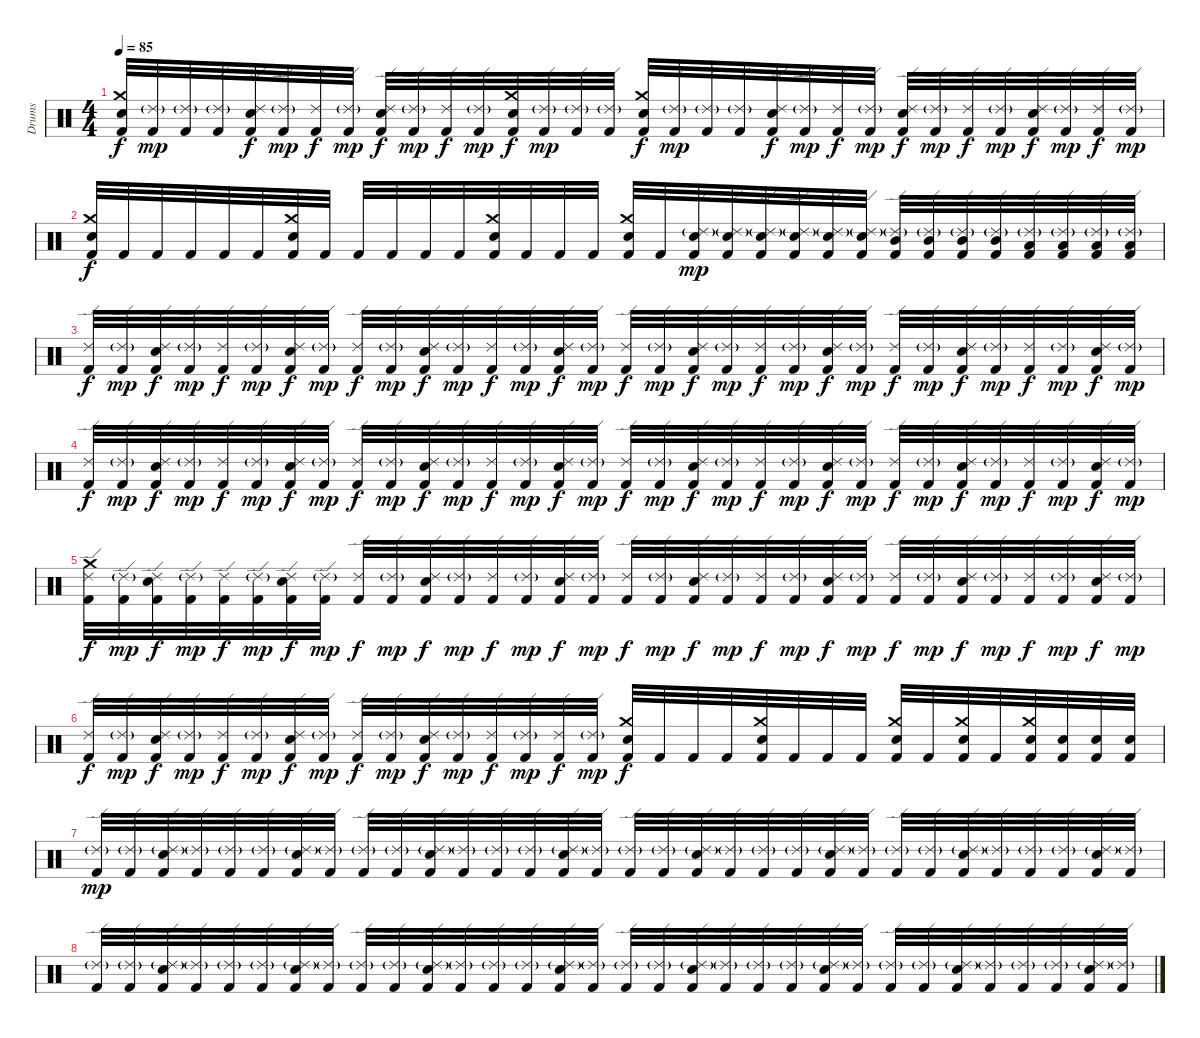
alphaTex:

\track ("Drums" "Drums") {instrument percussion}
\staff {score}
\articulation defaults
\ts (4 4)
\tempo 85
\clef neutral
\ks c
("Snare (hit) 2" "Crash medium (hit)" "Kick (hit) 2").32{dy f} ("Ride (edge) 2"{g} "Kick (hit) 2").32{dy mp} ("Ride (edge) 2"{g} "Kick (hit) 2").32 ("Ride (edge) 2"{g} "Kick (hit) 2").32 ("Snare (hit) 2" "Ride (edge) 2" "Kick (hit) 2").32{dy f} ("Ride (edge) 2"{g} "Kick (hit) 2").32{dy mp} ("Ride (edge) 2" "Kick (hit) 2").32{dy f} ("Ride (edge) 2"{g} "Kick (hit) 2").32{dy mp} ("Snare (hit) 2" "Ride (edge) 2" "Kick (hit) 2").32{dy f} ("Ride (edge) 2"{g} "Kick (hit) 2").32{dy mp} ("Ride (edge) 2" "Kick (hit) 2").32{dy f} ("Ride (edge) 2"{g} "Kick (hit) 2").32{dy mp} ("Snare (hit) 2" "Crash medium (hit)" "Kick (hit) 2").32{dy f} ("Ride (edge) 2"{g} "Kick (hit) 2").32{dy mp} ("Ride (edge) 2"{g} "Kick (hit) 2").32 ("Ride (edge) 2"{g} "Kick (hit) 2").32 ("Snare (hit) 2" "Crash medium (hit)" "Kick (hit) 2").32{dy f} ("Ride (edge) 2"{g} "Kick (hit) 2").32{dy mp} ("Ride (edge) 2"{g} "Kick (hit) 2").32 ("Ride (edge) 2"{g} "Kick (hit) 2").32 ("Snare (hit) 2" "Ride (edge) 2" "Kick (hit) 2").32{dy f} ("Ride (edge) 2"{g} "Kick (hit) 2").32{dy mp} ("Ride (edge) 2" "Kick (hit) 2").32{dy f} ("Ride (edge) 2"{g} "Kick (hit) 2").32{dy mp} ("Snare (hit) 2" "Ride (edge) 2" "Kick (hit) 2").32{dy f} ("Ride (edge) 2"{g} "Kick (hit) 2").32{dy mp} ("Ride (edge) 2" "Kick (hit) 2").32{dy f} ("Ride (edge) 2"{g} "Kick (hit) 2").32{dy mp} ("Snare (hit) 2" "Ride (edge) 2" "Kick (hit) 2").32{dy f} ("Ride (edge) 2"{g} "Kick (hit) 2").32{dy mp} ("Ride (edge) 2" "Kick (hit) 2").32{dy f} ("Ride (edge) 2"{g} "Kick (hit) 2").32{dy mp} |
("Snare (hit) 2" "Crash medium (hit)" "Kick (hit) 2").32{dy f} "Kick (hit) 2".32 "Kick (hit) 2".32 "Kick (hit) 2".32 "Kick (hit) 2".32 "Kick (hit) 2".32 ("Snare (hit) 2" "Crash medium (hit)" "Kick (hit) 2").32 "Kick (hit) 2".32 "Kick (hit) 2".32 "Kick (hit) 2".32 "Kick (hit) 2".32 "Kick (hit) 2".32 ("Snare (hit) 2" "Crash medium (hit)" "Kick (hit) 2").32 "Kick (hit) 2".32 "Kick (hit) 2".32 "Kick (hit) 2".32 ("Snare (hit) 2" "Crash medium (hit)" "Kick (hit) 2").32 "Kick (hit) 2".32 ("Snare (hit) 2" "Ride (edge) 2"{g} "Kick (hit) 2").32{dy mp} ("Snare (hit) 2" "Ride (edge) 2"{g} "Kick (hit) 2").32 ("Snare (hit) 2" "Ride (edge) 2"{g} "Kick (hit) 2").32 ("Snare (hit) 2" "Ride (edge) 2"{g} "Kick (hit) 2").32 ("Snare (hit) 2" "Ride (edge) 2"{g} "Kick (hit) 2").32 ("Snare (hit) 2" "Ride (edge) 2"{g} "Kick (hit) 2").32 ("Mid Tom (hit)" "Ride (edge) 2"{g} "Kick (hit) 2").32 ("Mid Tom (hit)" "Ride (edge) 2"{g} "Kick (hit) 2").32 ("Mid Tom (hit)" "Ride (edge) 2"{g} "Kick (hit) 2").32 ("Mid Tom (hit)" "Ride (edge) 2"{g} "Kick (hit) 2").32 ("Low Tom (hit)" "Ride (edge) 2"{g} "Kick (hit) 2").32 ("Low Tom (hit)" "Ride (edge) 2"{g} "Kick (hit) 2").32 ("Low Tom (hit)" "Ride (edge) 2"{g} "Kick (hit) 2").32 ("Low Tom (hit)" "Ride (edge) 2"{g} "Kick (hit) 2").32 |
("Ride (edge) 2" "Kick (hit) 2").32{dy f} ("Ride (edge) 2"{g} "Kick (hit) 2").32{dy mp} ("Snare (hit) 2" "Ride (edge) 2" "Kick (hit) 2").32{dy f} ("Ride (edge) 2"{g} "Kick (hit) 2").32{dy mp} ("Ride (edge) 2" "Kick (hit) 2").32{dy f} ("Ride (edge) 2"{g} "Kick (hit) 2").32{dy mp} ("Snare (hit) 2" "Ride (edge) 2" "Kick (hit) 2").32{dy f} ("Ride (edge) 2"{g} "Kick (hit) 2").32{dy mp} ("Ride (edge) 2" "Kick (hit) 2").32{dy f} ("Ride (edge) 2"{g} "Kick (hit) 2").32{dy mp} ("Snare (hit) 2" "Ride (edge) 2" "Kick (hit) 2").32{dy f} ("Ride (edge) 2"{g} "Kick (hit) 2").32{dy mp} ("Ride (edge) 2" "Kick (hit) 2").32{dy f} ("Ride (edge) 2"{g} "Kick (hit) 2").32{dy mp} ("Snare (hit) 2" "Ride (edge) 2" "Kick (hit) 2").32{dy f} ("Ride (edge) 2"{g} "Kick (hit) 2").32{dy mp} ("Ride (edge) 2" "Kick (hit) 2").32{dy f} ("Ride (edge) 2"{g} "Kick (hit) 2").32{dy mp} ("Snare (hit) 2" "Ride (edge) 2" "Kick (hit) 2").32{dy f} ("Ride (edge) 2"{g} "Kick (hit) 2").32{dy mp} ("Ride (edge) 2" "Kick (hit) 2").32{dy f} ("Ride (edge) 2"{g} "Kick (hit) 2").32{dy mp} ("Snare (hit) 2" "Ride (edge) 2" "Kick (hit) 2").32{dy f} ("Ride (edge) 2"{g} "Kick (hit) 2").32{dy mp} ("Ride (edge) 2" "Kick (hit) 2").32{dy f} ("Ride (edge) 2"{g} "Kick (hit) 2").32{dy mp} ("Snare (hit) 2" "Ride (edge) 2" "Kick (hit) 2").32{dy f} ("Ride (edge) 2"{g} "Kick (hit) 2").32{dy mp} ("Ride (edge) 2" "Kick (hit) 2").32{dy f} ("Ride (edge) 2"{g} "Kick (hit) 2").32{dy mp} ("Snare (hit) 2" "Ride (edge) 2" "Kick (hit) 2").32{dy f} ("Ride (edge) 2"{g} "Kick (hit) 2").32{dy mp} |
("Ride (edge) 2" "Kick (hit) 2").32{dy f} ("Ride (edge) 2"{g} "Kick (hit) 2").32{dy mp} ("Snare (hit) 2" "Ride (edge) 2" "Kick (hit) 2").32{dy f} ("Ride (edge) 2"{g} "Kick (hit) 2").32{dy mp} ("Ride (edge) 2" "Kick (hit) 2").32{dy f} ("Ride (edge) 2"{g} "Kick (hit) 2").32{dy mp} ("Snare (hit) 2" "Ride (edge) 2" "Kick (hit) 2").32{dy f} ("Ride (edge) 2"{g} "Kick (hit) 2").32{dy mp} ("Ride (edge) 2" "Kick (hit) 2").32{dy f} ("Ride (edge) 2"{g} "Kick (hit) 2").32{dy mp} ("Snare (hit) 2" "Ride (edge) 2" "Kick (hit) 2").32{dy f} ("Ride (edge) 2"{g} "Kick (hit) 2").32{dy mp} ("Ride (edge) 2" "Kick (hit) 2").32{dy f} ("Ride (edge) 2"{g} "Kick (hit) 2").32{dy mp} ("Snare (hit) 2" "Ride (edge) 2" "Kick (hit) 2").32{dy f} ("Ride (edge) 2"{g} "Kick (hit) 2").32{dy mp} ("Ride (edge) 2" "Kick (hit) 2").32{dy f} ("Ride (edge) 2"{g} "Kick (hit) 2").32{dy mp} ("Snare (hit) 2" "Ride (edge) 2" "Kick (hit) 2").32{dy f} ("Ride (edge) 2"{g} "Kick (hit) 2").32{dy mp} ("Ride (edge) 2" "Kick (hit) 2").32{dy f} ("Ride (edge) 2"{g} "Kick (hit) 2").32{dy mp} ("Snare (hit) 2" "Ride (edge) 2" "Kick (hit) 2").32{dy f} ("Ride (edge) 2"{g} "Kick (hit) 2").32{dy mp} ("Ride (edge) 2" "Kick (hit) 2").32{dy f} ("Ride (edge) 2"{g} "Kick (hit) 2").32{dy mp} ("Snare (hit) 2" "Ride (edge) 2" "Kick (hit) 2").32{dy f} ("Ride (edge) 2"{g} "Kick (hit) 2").32{dy mp} ("Ride (edge) 2" "Kick (hit) 2").32{dy f} ("Ride (edge) 2"{g} "Kick (hit) 2").32{dy mp} ("Snare (hit) 2" "Ride (edge) 2" "Kick (hit) 2").32{dy f} ("Ride (edge) 2"{g} "Kick (hit) 2").32{dy mp} |
("Crash medium (hit)" "Ride (edge) 2" "Kick (hit) 2").32{dy f} ("Ride (edge) 2"{g} "Kick (hit) 2").32{dy mp} ("Snare (hit) 2" "Ride (edge) 2" "Kick (hit) 2").32{dy f} ("Ride (edge) 2"{g} "Kick (hit) 2").32{dy mp} ("Ride (edge) 2" "Kick (hit) 2").32{dy f} ("Ride (edge) 2"{g} "Kick (hit) 2").32{dy mp} ("Snare (hit) 2" "Ride (edge) 2" "Kick (hit) 2").32{dy f} ("Ride (edge) 2"{g} "Kick (hit) 2").32{dy mp} ("Ride (edge) 2" "Kick (hit) 2").32{dy f} ("Ride (edge) 2"{g} "Kick (hit) 2").32{dy mp} ("Snare (hit) 2" "Ride (edge) 2" "Kick (hit) 2").32{dy f} ("Ride (edge) 2"{g} "Kick (hit) 2").32{dy mp} ("Ride (edge) 2" "Kick (hit) 2").32{dy f} ("Ride (edge) 2"{g} "Kick (hit) 2").32{dy mp} ("Snare (hit) 2" "Ride (edge) 2" "Kick (hit) 2").32{dy f} ("Ride (edge) 2"{g} "Kick (hit) 2").32{dy mp} ("Ride (edge) 2" "Kick (hit) 2").32{dy f} ("Ride (edge) 2"{g} "Kick (hit) 2").32{dy mp} ("Snare (hit) 2" "Ride (edge) 2" "Kick (hit) 2").32{dy f} ("Ride (edge) 2"{g} "Kick (hit) 2").32{dy mp} ("Ride (edge) 2" "Kick (hit) 2").32{dy f} ("Ride (edge) 2"{g} "Kick (hit) 2").32{dy mp} ("Snare (hit) 2" "Ride (edge) 2" "Kick (hit) 2").32{dy f} ("Ride (edge) 2"{g} "Kick (hit) 2").32{dy mp} ("Ride (edge) 2" "Kick (hit) 2").32{dy f} ("Ride (edge) 2"{g} "Kick (hit) 2").32{dy mp} ("Snare (hit) 2" "Ride (edge) 2" "Kick (hit) 2").32{dy f} ("Ride (edge) 2"{g} "Kick (hit) 2").32{dy mp} ("Ride (edge) 2" "Kick (hit) 2").32{dy f} ("Ride (edge) 2"{g} "Kick (hit) 2").32{dy mp} ("Snare (hit) 2" "Ride (edge) 2" "Kick (hit) 2").32{dy f} ("Ride (edge) 2"{g} "Kick (hit) 2").32{dy mp} |
("Ride (edge) 2" "Kick (hit) 2").32{dy f} ("Ride (edge) 2"{g} "Kick (hit) 2").32{dy mp} ("Snare (hit) 2" "Ride (edge) 2" "Kick (hit) 2").32{dy f} ("Ride (edge) 2"{g} "Kick (hit) 2").32{dy mp} ("Ride (edge) 2" "Kick (hit) 2").32{dy f} ("Ride (edge) 2"{g} "Kick (hit) 2").32{dy mp} ("Snare (hit) 2" "Ride (edge) 2" "Kick (hit) 2").32{dy f} ("Ride (edge) 2"{g} "Kick (hit) 2").32{dy mp} ("Ride (edge) 2" "Kick (hit) 2").32{dy f} ("Ride (edge) 2"{g} "Kick (hit) 2").32{dy mp} ("Snare (hit) 2" "Ride (edge) 2" "Kick (hit) 2").32{dy f} ("Ride (edge) 2"{g} "Kick (hit) 2").32{dy mp} ("Ride (edge) 2" "Kick (hit) 2").32{dy f} ("Ride (edge) 2"{g} "Kick (hit) 2").32{dy mp} ("Ride (edge) 2" "Kick (hit) 2").32{dy f} ("Ride (edge) 2"{g} "Kick (hit) 2").32{dy mp} ("Snare (hit) 2" "Crash medium (hit)" "Kick (hit) 2").32{dy f} "Kick (hit) 2".32 "Kick (hit) 2".32 "Kick (hit) 2".32 ("Snare (hit) 2" "Crash medium (hit)" "Kick (hit) 2").32 "Kick (hit) 2".32 "Kick (hit) 2".32 "Kick (hit) 2".32 ("Snare (hit) 2" "Crash medium (hit)" "Kick (hit) 2").32 "Kick (hit) 2".32 ("Snare (hit) 2" "Crash medium (hit)" "Kick (hit) 2").32 "Kick (hit) 2".32 ("Snare (hit) 2" "Crash medium (hit)" "Kick (hit) 2").32 ("Snare (hit) 2" "Kick (hit) 2").32 ("Snare (hit) 2" "Kick (hit) 2").32 ("Snare (hit) 2" "Kick (hit) 2").32 |
("Ride (edge) 2"{g} "Kick (hit) 2").32{dy mp} ("Ride (edge) 2"{g} "Kick (hit) 2").32 ("Snare (hit) 2" "Ride (edge) 2"{g} "Kick (hit) 2").32 ("Ride (edge) 2"{g} "Kick (hit) 2").32 ("Ride (edge) 2"{g} "Kick (hit) 2").32 ("Ride (edge) 2"{g} "Kick (hit) 2").32 ("Snare (hit) 2" "Ride (edge) 2"{g} "Kick (hit) 2").32 ("Ride (edge) 2"{g} "Kick (hit) 2").32 ("Ride (edge) 2"{g} "Kick (hit) 2").32 ("Ride (edge) 2"{g} "Kick (hit) 2").32 ("Snare (hit) 2" "Ride (edge) 2"{g} "Kick (hit) 2").32 ("Ride (edge) 2"{g} "Kick (hit) 2").32 ("Ride (edge) 2"{g} "Kick (hit) 2").32 ("Ride (edge) 2"{g} "Kick (hit) 2").32 ("Snare (hit) 2" "Ride (edge) 2"{g} "Kick (hit) 2").32 ("Ride (edge) 2"{g} "Kick (hit) 2").32 ("Ride (edge) 2"{g} "Kick (hit) 2").32 ("Ride (edge) 2"{g} "Kick (hit) 2").32 ("Snare (hit) 2" "Ride (edge) 2"{g} "Kick (hit) 2").32 ("Ride (edge) 2"{g} "Kick (hit) 2").32 ("Ride (edge) 2"{g} "Kick (hit) 2").32 ("Ride (edge) 2"{g} "Kick (hit) 2").32 ("Snare (hit) 2" "Ride (edge) 2"{g} "Kick (hit) 2").32 ("Ride (edge) 2"{g} "Kick (hit) 2").32 ("Ride (edge) 2"{g} "Kick (hit) 2").32 ("Ride (edge) 2"{g} "Kick (hit) 2").32 ("Snare (hit) 2" "Ride (edge) 2"{g} "Kick (hit) 2").32 ("Ride (edge) 2"{g} "Kick (hit) 2").32 ("Ride (edge) 2"{g} "Kick (hit) 2").32 ("Ride (edge) 2"{g} "Kick (hit) 2").32 ("Snare (hit) 2" "Ride (edge) 2"{g} "Kick (hit) 2").32 ("Ride (edge) 2"{g} "Kick (hit) 2").32 |
("Ride (edge) 2"{g} "Kick (hit) 2").32 ("Ride (edge) 2"{g} "Kick (hit) 2").32 ("Snare (hit) 2" "Ride (edge) 2"{g} "Kick (hit) 2").32 ("Ride (edge) 2"{g} "Kick (hit) 2").32 ("Ride (edge) 2"{g} "Kick (hit) 2").32 ("Ride (edge) 2"{g} "Kick (hit) 2").32 ("Snare (hit) 2" "Ride (edge) 2"{g} "Kick (hit) 2").32 ("Ride (edge) 2"{g} "Kick (hit) 2").32 ("Ride (edge) 2"{g} "Kick (hit) 2").32 ("Ride (edge) 2"{g} "Kick (hit) 2").32 ("Snare (hit) 2" "Ride (edge) 2"{g} "Kick (hit) 2").32 ("Ride (edge) 2"{g} "Kick (hit) 2").32 ("Ride (edge) 2"{g} "Kick (hit) 2").32 ("Ride (edge) 2"{g} "Kick (hit) 2").32 ("Snare (hit) 2" "Ride (edge) 2"{g} "Kick (hit) 2").32 ("Ride (edge) 2"{g} "Kick (hit) 2").32 ("Ride (edge) 2"{g} "Kick (hit) 2").32 ("Ride (edge) 2"{g} "Kick (hit) 2").32 ("Snare (hit) 2" "Ride (edge) 2"{g} "Kick (hit) 2").32 ("Ride (edge) 2"{g} "Kick (hit) 2").32 ("Ride (edge) 2"{g} "Kick (hit) 2").32 ("Ride (edge) 2"{g} "Kick (hit) 2").32 ("Snare (hit) 2" "Ride (edge) 2"{g} "Kick (hit) 2").32 ("Ride (edge) 2"{g} "Kick (hit) 2").32 ("Ride (edge) 2"{g} "Kick (hit) 2").32 ("Ride (edge) 2"{g} "Kick (hit) 2").32 ("Snare (hit) 2" "Ride (edge) 2"{g} "Kick (hit) 2").32 ("Ride (edge) 2"{g} "Kick (hit) 2").32 ("Ride (edge) 2"{g} "Kick (hit) 2").32 ("Ride (edge) 2"{g} "Kick (hit) 2").32 ("Snare (hit) 2" "Ride (edge) 2"{g} "Kick (hit) 2").32 ("Ride (edge) 2"{g} "Kick (hit) 2").32
